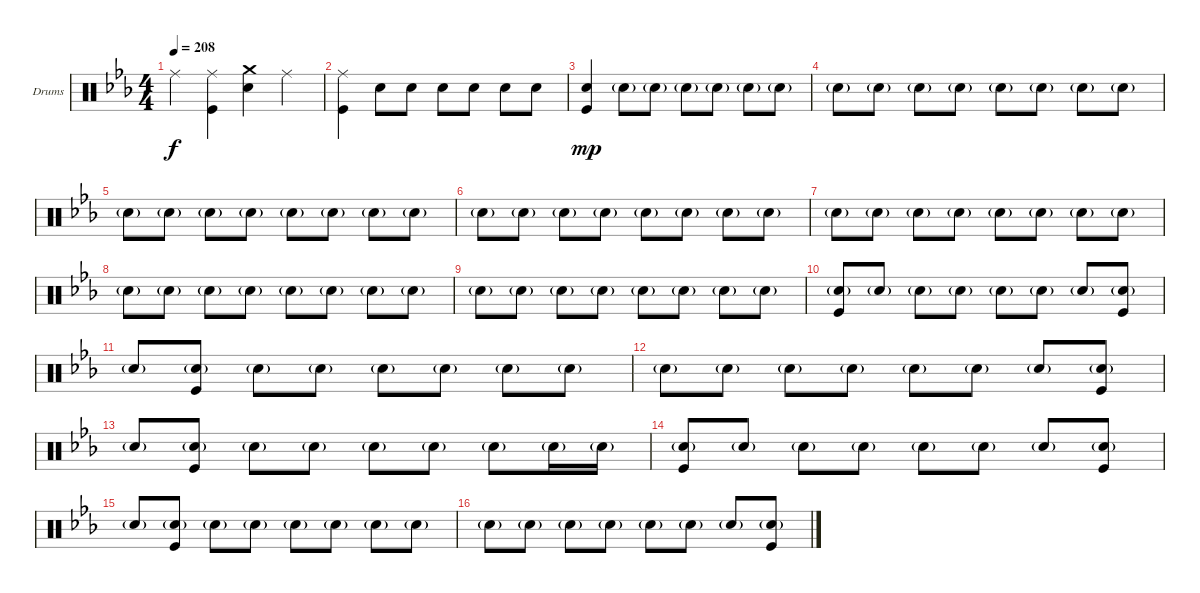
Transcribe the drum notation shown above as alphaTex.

\defaultSystemsLayout 4
\bracketExtendMode groupsimilarinstruments
\firstSystemTrackNameOrientation horizontal
\otherSystemsTrackNameOrientation horizontal
\track ("Drumkit" "Drums") {instrument percussion}
\staff {score}
\articulation defaults
\ts (4 4)
\tempo 208
\clef neutral
\ks eb "Ride (middle)".4{dy f}
("Ride (middle)" "Kick (hit)").4 ("Crash medium (hit)" "Snare (hit) 2").4 "Ride (middle)".4 |
("Ride (middle)" "Kick (hit)").4 "Snare (hit) 2".8 "Snare (hit) 2".8 "Snare (hit) 2".8 "Snare (hit) 2".8 "Snare (hit) 2".8 "Snare (hit) 2".8 |
("Kick (hit)" "Snare (hit) 2").4{dy mp} "Snare (hit) 2"{g}.8 "Snare (hit) 2"{g}.8 "Snare (hit) 2"{g}.8 "Snare (hit) 2"{g}.8 "Snare (hit) 2"{g}.8 "Snare (hit) 2"{g}.8 |
"Snare (hit) 2"{g}.8 "Snare (hit) 2"{g}.8 "Snare (hit) 2"{g}.8 "Snare (hit) 2"{g}.8 "Snare (hit) 2"{g}.8 "Snare (hit) 2"{g}.8 "Snare (hit) 2"{g}.8 "Snare (hit) 2"{g}.8 |
"Snare (hit) 2"{g}.8 "Snare (hit) 2"{g}.8 "Snare (hit) 2"{g}.8 "Snare (hit) 2"{g}.8 "Snare (hit) 2"{g}.8 "Snare (hit) 2"{g}.8 "Snare (hit) 2"{g}.8 "Snare (hit) 2"{g}.8 |
"Snare (hit) 2"{g}.8 "Snare (hit) 2"{g}.8 "Snare (hit) 2"{g}.8 "Snare (hit) 2"{g}.8 "Snare (hit) 2"{g}.8 "Snare (hit) 2"{g}.8 "Snare (hit) 2"{g}.8 "Snare (hit) 2"{g}.8 |
"Snare (hit) 2"{g}.8 "Snare (hit) 2"{g}.8 "Snare (hit) 2"{g}.8 "Snare (hit) 2"{g}.8 "Snare (hit) 2"{g}.8 "Snare (hit) 2"{g}.8 "Snare (hit) 2"{g}.8 "Snare (hit) 2"{g}.8 |
"Snare (hit) 2"{g}.8 "Snare (hit) 2"{g}.8 "Snare (hit) 2"{g}.8 "Snare (hit) 2"{g}.8 "Snare (hit) 2"{g}.8 "Snare (hit) 2"{g}.8 "Snare (hit) 2"{g}.8 "Snare (hit) 2"{g}.8 |
"Snare (hit) 2"{g}.8 "Snare (hit) 2"{g}.8 "Snare (hit) 2"{g}.8 "Snare (hit) 2"{g}.8 "Snare (hit) 2"{g}.8 "Snare (hit) 2"{g}.8 "Snare (hit) 2"{g}.8 "Snare (hit) 2"{g}.8 |
("Snare (hit) 2"{g} "Kick (hit)").8 "Snare (hit) 2"{g}.8 "Snare (hit) 2"{g}.8 "Snare (hit) 2"{g}.8 "Snare (hit) 2"{g}.8 "Snare (hit) 2"{g}.8 "Snare (hit) 2"{g}.8 ("Snare (hit) 2"{g} "Kick (hit)").8 |
"Snare (hit) 2"{g}.8 ("Snare (hit) 2"{g} "Kick (hit)").8 "Snare (hit) 2"{g}.8 "Snare (hit) 2"{g}.8 "Snare (hit) 2"{g}.8 "Snare (hit) 2"{g}.8 "Snare (hit) 2"{g}.8 "Snare (hit) 2"{g}.8 |
"Snare (hit) 2"{g}.8 "Snare (hit) 2"{g}.8 "Snare (hit) 2"{g}.8 "Snare (hit) 2"{g}.8 "Snare (hit) 2"{g}.8 "Snare (hit) 2"{g}.8 "Snare (hit) 2"{g}.8 ("Snare (hit) 2"{g} "Kick (hit)").8 |
"Snare (hit) 2"{g}.8 ("Snare (hit) 2"{g} "Kick (hit)").8 "Snare (hit) 2"{g}.8 "Snare (hit) 2"{g}.8 "Snare (hit) 2"{g}.8 "Snare (hit) 2"{g}.8 "Snare (hit) 2"{g}.8 "Snare (hit) 2"{g}.16 "Snare (hit) 2"{g}.16 |
("Snare (hit) 2"{g} "Kick (hit)").8 "Snare (hit) 2"{g}.8 "Snare (hit) 2"{g}.8 "Snare (hit) 2"{g}.8 "Snare (hit) 2"{g}.8 "Snare (hit) 2"{g}.8 "Snare (hit) 2"{g}.8 ("Snare (hit) 2"{g} "Kick (hit)").8 |
"Snare (hit) 2"{g}.8 ("Snare (hit) 2"{g} "Kick (hit)").8 "Snare (hit) 2"{g}.8 "Snare (hit) 2"{g}.8 "Snare (hit) 2"{g}.8 "Snare (hit) 2"{g}.8 "Snare (hit) 2"{g}.8 "Snare (hit) 2"{g}.8 |
"Snare (hit) 2"{g}.8 "Snare (hit) 2"{g}.8 "Snare (hit) 2"{g}.8 "Snare (hit) 2"{g}.8 "Snare (hit) 2"{g}.8 "Snare (hit) 2"{g}.8 "Snare (hit) 2"{g}.8 ("Snare (hit) 2"{g} "Kick (hit)").8
